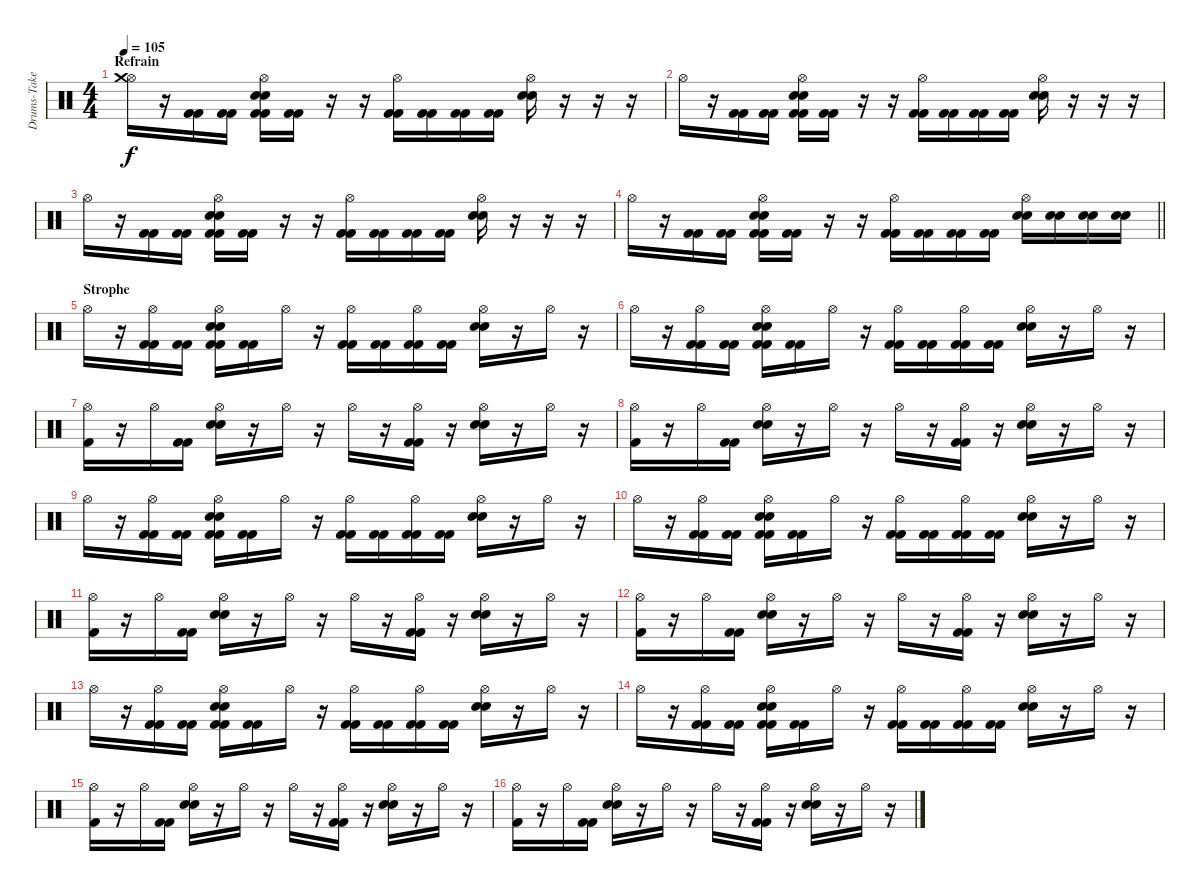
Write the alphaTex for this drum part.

\track ("Drums-Take the midi one!" "Drums-Take") {instrument percussion}
\staff {score}
\articulation defaults
\ts (4 4)
\section ("" "Refrain")
\tempo 105
\clef neutral
\ks c
("Hi-Hat (open)" "Crash medium (hit)").16{dy f} r.16 ("Kick (hit) 2" "Kick (hit) 2").16 ("Kick (hit) 2" "Kick (hit) 2").16 ("Kick (hit) 2" "Kick (hit) 2" "Hi-Hat (open)" "Electric Snare (hit)" "Electric Snare (hit)").16 ("Kick (hit) 2" "Kick (hit) 2").16 r.16 r.16 ("Kick (hit) 2" "Kick (hit) 2" "Hi-Hat (open)").16 ("Kick (hit) 2" "Kick (hit) 2").16 ("Kick (hit) 2" "Kick (hit) 2").16 ("Kick (hit) 2" "Kick (hit) 2").16 ("Hi-Hat (open)" "Electric Snare (hit)" "Electric Snare (hit)").16 r.16 r.16 r.16 |
"Hi-Hat (open)".16 r.16 ("Kick (hit) 2" "Kick (hit) 2").16 ("Kick (hit) 2" "Kick (hit) 2").16 ("Kick (hit) 2" "Kick (hit) 2" "Hi-Hat (open)" "Electric Snare (hit)" "Electric Snare (hit)").16 ("Kick (hit) 2" "Kick (hit) 2").16 r.16 r.16 ("Kick (hit) 2" "Kick (hit) 2" "Hi-Hat (open)").16 ("Kick (hit) 2" "Kick (hit) 2").16 ("Kick (hit) 2" "Kick (hit) 2").16 ("Kick (hit) 2" "Kick (hit) 2").16 ("Hi-Hat (open)" "Electric Snare (hit)" "Electric Snare (hit)").16 r.16 r.16 r.16 |
"Hi-Hat (open)".16 r.16 ("Kick (hit) 2" "Kick (hit) 2").16 ("Kick (hit) 2" "Kick (hit) 2").16 ("Kick (hit) 2" "Kick (hit) 2" "Hi-Hat (open)" "Electric Snare (hit)" "Electric Snare (hit)").16 ("Kick (hit) 2" "Kick (hit) 2").16 r.16 r.16 ("Kick (hit) 2" "Kick (hit) 2" "Hi-Hat (open)").16 ("Kick (hit) 2" "Kick (hit) 2").16 ("Kick (hit) 2" "Kick (hit) 2").16 ("Kick (hit) 2" "Kick (hit) 2").16 ("Hi-Hat (open)" "Electric Snare (hit)" "Electric Snare (hit)").16 r.16 r.16 r.16 |
\barLineRight lightlight "Hi-Hat (open)".16
r.16 ("Kick (hit) 2" "Kick (hit) 2").16 ("Kick (hit) 2" "Kick (hit) 2").16 ("Kick (hit) 2" "Kick (hit) 2" "Hi-Hat (open)" "Electric Snare (hit)" "Electric Snare (hit)").16 ("Kick (hit) 2" "Kick (hit) 2").16 r.16 r.16 ("Kick (hit) 2" "Kick (hit) 2" "Hi-Hat (open)").16 ("Kick (hit) 2" "Kick (hit) 2").16 ("Kick (hit) 2" "Kick (hit) 2").16 ("Kick (hit) 2" "Kick (hit) 2").16 ("Hi-Hat (open)" "Snare (hit) 2" "Snare (hit) 2").16 ("Snare (hit) 2" "Snare (hit) 2").16 ("Snare (hit) 2" "Snare (hit) 2").16 ("Snare (hit) 2" "Snare (hit) 2").16 |
\section ("" "Strophe")
"Hi-Hat (open)".16 r.16 ("Kick (hit) 2" "Kick (hit) 2" "Hi-Hat (open)").16 ("Kick (hit) 2" "Kick (hit) 2").16 ("Kick (hit) 2" "Kick (hit) 2" "Hi-Hat (open)" "Electric Snare (hit)" "Electric Snare (hit)").16 ("Kick (hit) 2" "Kick (hit) 2").16 "Hi-Hat (open)".16 r.16 ("Kick (hit) 2" "Kick (hit) 2" "Hi-Hat (open)").16 ("Kick (hit) 2" "Kick (hit) 2").16 ("Kick (hit) 2" "Kick (hit) 2" "Hi-Hat (open)").16 ("Kick (hit) 2" "Kick (hit) 2").16 ("Hi-Hat (open)" "Electric Snare (hit)" "Electric Snare (hit)").16 r.16 "Hi-Hat (open)".16 r.16 |
"Hi-Hat (open)".16 r.16 ("Kick (hit) 2" "Kick (hit) 2" "Hi-Hat (open)").16 ("Kick (hit) 2" "Kick (hit) 2").16 ("Kick (hit) 2" "Kick (hit) 2" "Hi-Hat (open)" "Electric Snare (hit)" "Electric Snare (hit)").16 ("Kick (hit) 2" "Kick (hit) 2").16 "Hi-Hat (open)".16 r.16 ("Kick (hit) 2" "Kick (hit) 2" "Hi-Hat (open)").16 ("Kick (hit) 2" "Kick (hit) 2").16 ("Kick (hit) 2" "Kick (hit) 2" "Hi-Hat (open)").16 ("Kick (hit) 2" "Kick (hit) 2").16 ("Hi-Hat (open)" "Electric Snare (hit)" "Electric Snare (hit)").16 r.16 "Hi-Hat (open)".16 r.16 |
("Kick (hit) 2" "Hi-Hat (open)").16 r.16 "Hi-Hat (open)".16 ("Kick (hit) 2" "Kick (hit) 2").16 ("Hi-Hat (open)" "Snare (hit) 2" "Snare (hit) 2").16 r.16 "Hi-Hat (open)".16 r.16 "Hi-Hat (open)".16 r.16 ("Kick (hit) 2" "Kick (hit) 2" "Hi-Hat (open)").16 r.16 ("Hi-Hat (open)" "Electric Snare (hit)" "Electric Snare (hit)").16 r.16 "Hi-Hat (open)".16 r.16 |
("Kick (hit) 2" "Hi-Hat (open)").16 r.16 "Hi-Hat (open)".16 ("Kick (hit) 2" "Kick (hit) 2").16 ("Hi-Hat (open)" "Snare (hit) 2" "Snare (hit) 2").16 r.16 "Hi-Hat (open)".16 r.16 "Hi-Hat (open)".16 r.16 ("Kick (hit) 2" "Kick (hit) 2" "Hi-Hat (open)").16 r.16 ("Hi-Hat (open)" "Electric Snare (hit)" "Electric Snare (hit)").16 r.16 "Hi-Hat (open)".16 r.16 |
"Hi-Hat (open)".16 r.16 ("Kick (hit) 2" "Kick (hit) 2" "Hi-Hat (open)").16 ("Kick (hit) 2" "Kick (hit) 2").16 ("Kick (hit) 2" "Kick (hit) 2" "Hi-Hat (open)" "Electric Snare (hit)" "Electric Snare (hit)").16 ("Kick (hit) 2" "Kick (hit) 2").16 "Hi-Hat (open)".16 r.16 ("Kick (hit) 2" "Kick (hit) 2" "Hi-Hat (open)").16 ("Kick (hit) 2" "Kick (hit) 2").16 ("Kick (hit) 2" "Kick (hit) 2" "Hi-Hat (open)").16 ("Kick (hit) 2" "Kick (hit) 2").16 ("Hi-Hat (open)" "Electric Snare (hit)" "Electric Snare (hit)").16 r.16 "Hi-Hat (open)".16 r.16 |
"Hi-Hat (open)".16 r.16 ("Kick (hit) 2" "Kick (hit) 2" "Hi-Hat (open)").16 ("Kick (hit) 2" "Kick (hit) 2").16 ("Kick (hit) 2" "Kick (hit) 2" "Hi-Hat (open)" "Electric Snare (hit)" "Electric Snare (hit)").16 ("Kick (hit) 2" "Kick (hit) 2").16 "Hi-Hat (open)".16 r.16 ("Kick (hit) 2" "Kick (hit) 2" "Hi-Hat (open)").16 ("Kick (hit) 2" "Kick (hit) 2").16 ("Kick (hit) 2" "Kick (hit) 2" "Hi-Hat (open)").16 ("Kick (hit) 2" "Kick (hit) 2").16 ("Hi-Hat (open)" "Electric Snare (hit)" "Electric Snare (hit)").16 r.16 "Hi-Hat (open)".16 r.16 |
("Kick (hit) 2" "Hi-Hat (open)").16 r.16 "Hi-Hat (open)".16 ("Kick (hit) 2" "Kick (hit) 2").16 ("Hi-Hat (open)" "Snare (hit) 2" "Snare (hit) 2").16 r.16 "Hi-Hat (open)".16 r.16 "Hi-Hat (open)".16 r.16 ("Kick (hit) 2" "Kick (hit) 2" "Hi-Hat (open)").16 r.16 ("Hi-Hat (open)" "Electric Snare (hit)" "Electric Snare (hit)").16 r.16 "Hi-Hat (open)".16 r.16 |
("Kick (hit) 2" "Hi-Hat (open)").16 r.16 "Hi-Hat (open)".16 ("Kick (hit) 2" "Kick (hit) 2").16 ("Hi-Hat (open)" "Snare (hit) 2" "Snare (hit) 2").16 r.16 "Hi-Hat (open)".16 r.16 "Hi-Hat (open)".16 r.16 ("Kick (hit) 2" "Kick (hit) 2" "Hi-Hat (open)").16 r.16 ("Hi-Hat (open)" "Electric Snare (hit)" "Electric Snare (hit)").16 r.16 "Hi-Hat (open)".16 r.16 |
"Hi-Hat (open)".16 r.16 ("Kick (hit) 2" "Kick (hit) 2" "Hi-Hat (open)").16 ("Kick (hit) 2" "Kick (hit) 2").16 ("Kick (hit) 2" "Kick (hit) 2" "Hi-Hat (open)" "Electric Snare (hit)" "Electric Snare (hit)").16 ("Kick (hit) 2" "Kick (hit) 2").16 "Hi-Hat (open)".16 r.16 ("Kick (hit) 2" "Kick (hit) 2" "Hi-Hat (open)").16 ("Kick (hit) 2" "Kick (hit) 2").16 ("Kick (hit) 2" "Kick (hit) 2" "Hi-Hat (open)").16 ("Kick (hit) 2" "Kick (hit) 2").16 ("Hi-Hat (open)" "Electric Snare (hit)" "Electric Snare (hit)").16 r.16 "Hi-Hat (open)".16 r.16 |
"Hi-Hat (open)".16 r.16 ("Kick (hit) 2" "Kick (hit) 2" "Hi-Hat (open)").16 ("Kick (hit) 2" "Kick (hit) 2").16 ("Kick (hit) 2" "Kick (hit) 2" "Hi-Hat (open)" "Electric Snare (hit)" "Electric Snare (hit)").16 ("Kick (hit) 2" "Kick (hit) 2").16 "Hi-Hat (open)".16 r.16 ("Kick (hit) 2" "Kick (hit) 2" "Hi-Hat (open)").16 ("Kick (hit) 2" "Kick (hit) 2").16 ("Kick (hit) 2" "Kick (hit) 2" "Hi-Hat (open)").16 ("Kick (hit) 2" "Kick (hit) 2").16 ("Hi-Hat (open)" "Electric Snare (hit)" "Electric Snare (hit)").16 r.16 "Hi-Hat (open)".16 r.16 |
("Kick (hit) 2" "Hi-Hat (open)").16 r.16 "Hi-Hat (open)".16 ("Kick (hit) 2" "Kick (hit) 2").16 ("Hi-Hat (open)" "Snare (hit) 2" "Snare (hit) 2").16 r.16 "Hi-Hat (open)".16 r.16 "Hi-Hat (open)".16 r.16 ("Kick (hit) 2" "Kick (hit) 2" "Hi-Hat (open)").16 r.16 ("Hi-Hat (open)" "Electric Snare (hit)" "Electric Snare (hit)").16 r.16 "Hi-Hat (open)".16 r.16 |
("Kick (hit) 2" "Hi-Hat (open)").16 r.16 "Hi-Hat (open)".16 ("Kick (hit) 2" "Kick (hit) 2").16 ("Hi-Hat (open)" "Snare (hit) 2" "Snare (hit) 2").16 r.16 "Hi-Hat (open)".16 r.16 "Hi-Hat (open)".16 r.16 ("Kick (hit) 2" "Kick (hit) 2" "Hi-Hat (open)").16 r.16 ("Hi-Hat (open)" "Electric Snare (hit)" "Electric Snare (hit)").16 r.16 "Hi-Hat (open)".16 r.16
